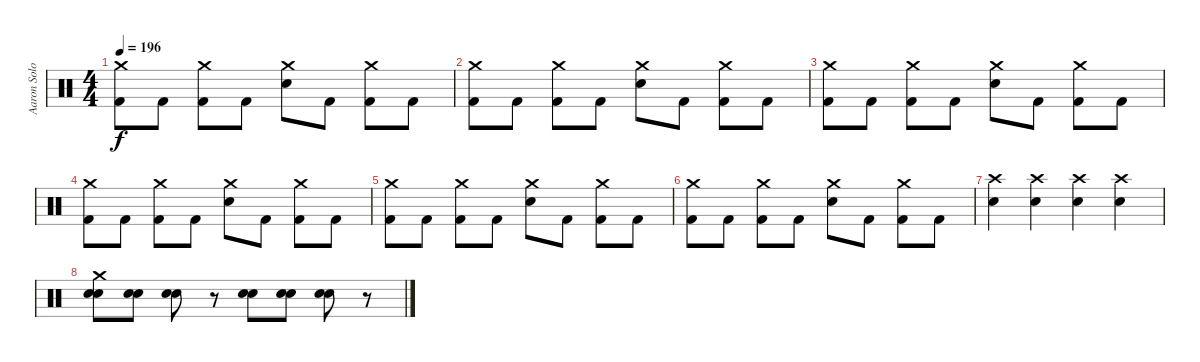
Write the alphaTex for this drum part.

\track ("Aaron Solowoniuk" "Aaron Solo") {instrument percussion}
\staff {score}
\articulation defaults
\ts (4 4)
\tempo 196
\clef neutral
\ks c
("Crash medium (hit)" "Kick (hit) 2").8{dy f} "Kick (hit) 2".8 ("Crash medium (hit)" "Kick (hit) 2").8 "Kick (hit) 2".8 ("Crash medium (hit)" "Electric Snare (hit)").8 "Kick (hit) 2".8 ("Crash medium (hit)" "Kick (hit) 2").8 "Kick (hit) 2".8 |
("Crash medium (hit)" "Kick (hit) 2").8 "Kick (hit) 2".8 ("Crash medium (hit)" "Kick (hit) 2").8 "Kick (hit) 2".8 ("Crash medium (hit)" "Electric Snare (hit)").8 "Kick (hit) 2".8 ("Crash medium (hit)" "Kick (hit) 2").8 "Kick (hit) 2".8 |
("Crash medium (hit)" "Kick (hit) 2").8 "Kick (hit) 2".8 ("Crash medium (hit)" "Kick (hit) 2").8 "Kick (hit) 2".8 ("Crash medium (hit)" "Electric Snare (hit)").8 "Kick (hit) 2".8 ("Crash medium (hit)" "Kick (hit) 2").8 "Kick (hit) 2".8 |
("Crash medium (hit)" "Kick (hit) 2").8 "Kick (hit) 2".8 ("Crash medium (hit)" "Kick (hit) 2").8 "Kick (hit) 2".8 ("Crash medium (hit)" "Electric Snare (hit)").8 "Kick (hit) 2".8 ("Crash medium (hit)" "Kick (hit) 2").8 "Kick (hit) 2".8 |
("Crash medium (hit)" "Kick (hit) 2").8 "Kick (hit) 2".8 ("Crash medium (hit)" "Kick (hit) 2").8 "Kick (hit) 2".8 ("Crash medium (hit)" "Electric Snare (hit)").8 "Kick (hit) 2".8 ("Crash medium (hit)" "Kick (hit) 2").8 "Kick (hit) 2".8 |
("Crash medium (hit)" "Kick (hit) 2").8 "Kick (hit) 2".8 ("Crash medium (hit)" "Kick (hit) 2").8 "Kick (hit) 2".8 ("Crash medium (hit)" "Electric Snare (hit)").8 "Kick (hit) 2".8 ("Crash medium (hit)" "Kick (hit) 2").8 "Kick (hit) 2".8 |
("Crash high (hit)" "Electric Snare (hit)").4 ("Crash high (hit)" "Electric Snare (hit)").4 ("Crash high (hit)" "Electric Snare (hit)").4 ("Crash high (hit)" "Electric Snare (hit)").4 |
("Crash medium (hit)" "Electric Snare (hit)" "Electric Snare (hit)").8 ("Electric Snare (hit)" "Electric Snare (hit)").8 ("Electric Snare (hit)" "Electric Snare (hit)").8 r.8 ("Electric Snare (hit)" "Electric Snare (hit)").8 ("Electric Snare (hit)" "Electric Snare (hit)").8 ("Electric Snare (hit)" "Electric Snare (hit)").8 r.8
